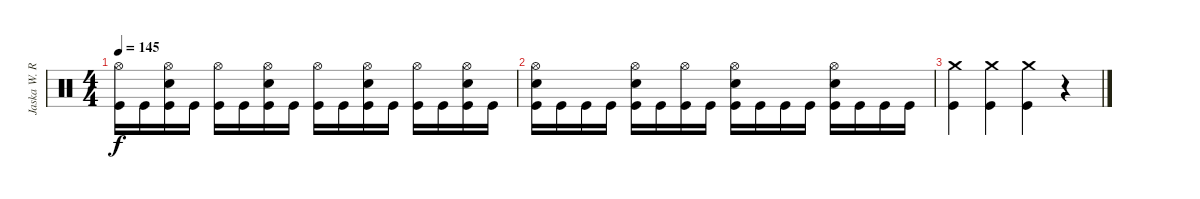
\track ("Jaska W. Raatikainen" "Jaska W. R") {instrument percussion}
\staff {score}
\articulation defaults
\ts (4 4)
\tempo 145
\clef neutral
\ks c
("Hi-Hat (open)" "Kick (hit)").16{dy f} "Kick (hit)".16 ("Hi-Hat (open)" "Snare (hit) 2" "Kick (hit)").16 "Kick (hit)".16 ("Hi-Hat (open)" "Kick (hit)").16 "Kick (hit)".16 ("Hi-Hat (open)" "Snare (hit) 2" "Kick (hit)").16 "Kick (hit)".16 ("Hi-Hat (open)" "Kick (hit)").16 "Kick (hit)".16 ("Hi-Hat (open)" "Snare (hit) 2" "Kick (hit)").16 "Kick (hit)".16 ("Hi-Hat (open)" "Kick (hit)").16 "Kick (hit)".16 ("Hi-Hat (open)" "Snare (hit) 2" "Kick (hit)").16 "Kick (hit)".16 |
("Hi-Hat (open)" "Snare (hit) 2" "Kick (hit)").16 "Kick (hit)".16 "Kick (hit)".16 "Kick (hit)".16 ("Hi-Hat (open)" "Snare (hit) 2" "Kick (hit)").16 "Kick (hit)".16 ("Hi-Hat (open)" "Kick (hit)").16 "Kick (hit)".16 ("Hi-Hat (open)" "Snare (hit) 2" "Kick (hit)").16 "Kick (hit)".16 "Kick (hit)".16 "Kick (hit)".16 ("Hi-Hat (open)" "Snare (hit) 2" "Kick (hit)").16 "Kick (hit)".16 "Kick (hit)".16 "Kick (hit)".16 |
("Crash medium (hit)" "Kick (hit)").4 ("Crash medium (hit)" "Kick (hit)").4 ("Crash medium (hit)" "Kick (hit)").4 r.4
